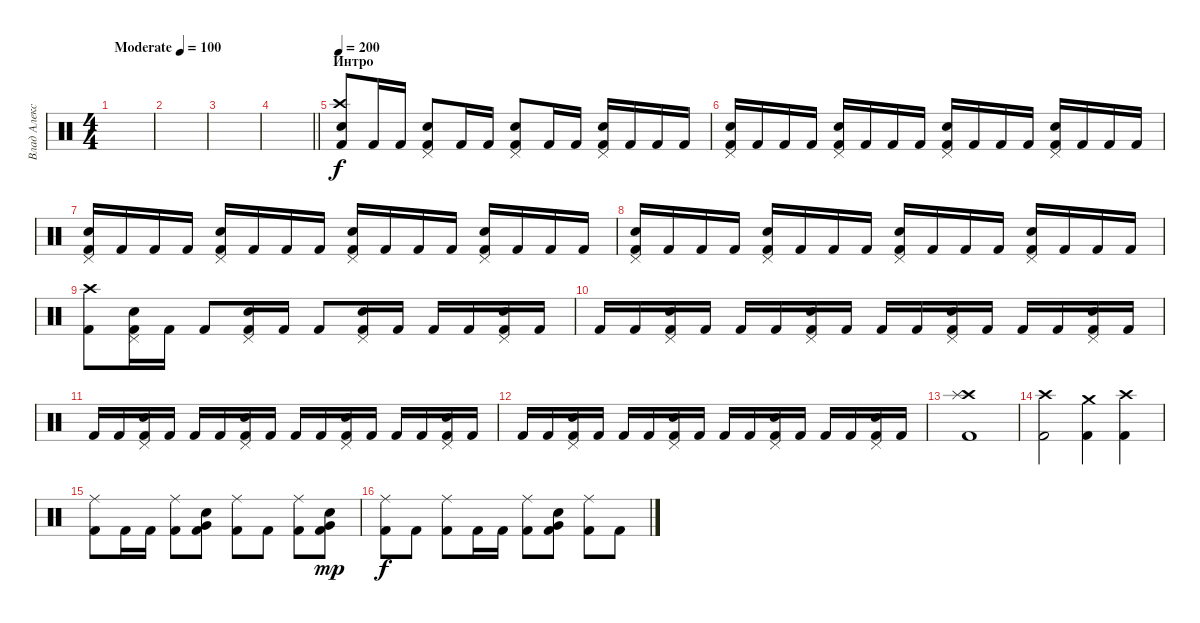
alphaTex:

\track ("Влад Алексеенко" "Влад Алекс") {instrument percussion}
\staff {score}
\articulation defaults
\ts (4 4)
\tempo (100 "Moderate")
\clef neutral
\ks c
|
|
|
\barLineRight lightlight
|
\section ("" "Интро")
\tempo 200
("Kick (hit) 2" "Crash high (hit)" "Electric Snare (hit)").8 "Kick (hit) 2".16 "Kick (hit) 2".16 ("Kick (hit) 2" "Electric Snare (hit)" "Pedal Hi-Hat (hit)").8 "Kick (hit) 2".16 "Kick (hit) 2".16 ("Kick (hit) 2" "Electric Snare (hit)" "Pedal Hi-Hat (hit)").8 "Kick (hit) 2".16 "Kick (hit) 2".16 ("Kick (hit) 2" "Electric Snare (hit)" "Pedal Hi-Hat (hit)").16 "Kick (hit) 2".16 "Kick (hit) 2".16 "Kick (hit) 2".16 |
("Kick (hit) 2" "Electric Snare (hit)" "Pedal Hi-Hat (hit)").16 "Kick (hit) 2".16 "Kick (hit) 2".16 "Kick (hit) 2".16 ("Kick (hit) 2" "Electric Snare (hit)" "Pedal Hi-Hat (hit)").16 "Kick (hit) 2".16 "Kick (hit) 2".16 "Kick (hit) 2".16 ("Kick (hit) 2" "Electric Snare (hit)" "Pedal Hi-Hat (hit)").16 "Kick (hit) 2".16 "Kick (hit) 2".16 "Kick (hit) 2".16 ("Kick (hit) 2" "Electric Snare (hit)" "Pedal Hi-Hat (hit)").16 "Kick (hit) 2".16 "Kick (hit) 2".16 "Kick (hit) 2".16 |
("Kick (hit) 2" "Electric Snare (hit)" "Pedal Hi-Hat (hit)").16 "Kick (hit) 2".16 "Kick (hit) 2".16 "Kick (hit) 2".16 ("Kick (hit) 2" "Electric Snare (hit)" "Pedal Hi-Hat (hit)").16 "Kick (hit) 2".16 "Kick (hit) 2".16 "Kick (hit) 2".16 ("Kick (hit) 2" "Electric Snare (hit)" "Pedal Hi-Hat (hit)").16 "Kick (hit) 2".16 "Kick (hit) 2".16 "Kick (hit) 2".16 ("Kick (hit) 2" "Electric Snare (hit)" "Pedal Hi-Hat (hit)").16 "Kick (hit) 2".16 "Kick (hit) 2".16 "Kick (hit) 2".16 |
("Kick (hit) 2" "Electric Snare (hit)" "Pedal Hi-Hat (hit)").16 "Kick (hit) 2".16 "Kick (hit) 2".16 "Kick (hit) 2".16 ("Kick (hit) 2" "Electric Snare (hit)" "Pedal Hi-Hat (hit)").16 "Kick (hit) 2".16 "Kick (hit) 2".16 "Kick (hit) 2".16 ("Kick (hit) 2" "Electric Snare (hit)" "Pedal Hi-Hat (hit)").16 "Kick (hit) 2".16 "Kick (hit) 2".16 "Kick (hit) 2".16 ("Kick (hit) 2" "Electric Snare (hit)" "Pedal Hi-Hat (hit)").16 "Kick (hit) 2".16 "Kick (hit) 2".16 "Kick (hit) 2".16 |
("Kick (hit) 2" "Crash high (hit)").8 ("Kick (hit) 2" "Electric Snare (hit)" "Pedal Hi-Hat (hit)").16 "Kick (hit) 2".16 "Kick (hit) 2".8 ("Kick (hit) 2" "Electric Snare (hit)" "Pedal Hi-Hat (hit)").16 "Kick (hit) 2".16 "Kick (hit) 2".8 ("Kick (hit) 2" "Electric Snare (hit)" "Pedal Hi-Hat (hit)").16 "Kick (hit) 2".16 "Kick (hit) 2".16 "Kick (hit) 2".16 ("Kick (hit) 2" "Electric Snare (hit)" "Pedal Hi-Hat (hit)").16 "Kick (hit) 2".16 |
"Kick (hit) 2".16 "Kick (hit) 2".16 ("Kick (hit) 2" "Electric Snare (hit)" "Pedal Hi-Hat (hit)").16 "Kick (hit) 2".16 "Kick (hit) 2".16 "Kick (hit) 2".16 ("Kick (hit) 2" "Electric Snare (hit)" "Pedal Hi-Hat (hit)").16 "Kick (hit) 2".16 "Kick (hit) 2".16 "Kick (hit) 2".16 ("Kick (hit) 2" "Electric Snare (hit)" "Pedal Hi-Hat (hit)").16 "Kick (hit) 2".16 "Kick (hit) 2".16 "Kick (hit) 2".16 ("Kick (hit) 2" "Electric Snare (hit)" "Pedal Hi-Hat (hit)").16 "Kick (hit) 2".16 |
"Kick (hit) 2".16 "Kick (hit) 2".16 ("Kick (hit) 2" "Electric Snare (hit)" "Pedal Hi-Hat (hit)").16 "Kick (hit) 2".16 "Kick (hit) 2".16 "Kick (hit) 2".16 ("Kick (hit) 2" "Electric Snare (hit)" "Pedal Hi-Hat (hit)").16 "Kick (hit) 2".16 "Kick (hit) 2".16 "Kick (hit) 2".16 ("Kick (hit) 2" "Electric Snare (hit)" "Pedal Hi-Hat (hit)").16 "Kick (hit) 2".16 "Kick (hit) 2".16 "Kick (hit) 2".16 ("Kick (hit) 2" "Electric Snare (hit)" "Pedal Hi-Hat (hit)").16 "Kick (hit) 2".16 |
"Kick (hit) 2".16 "Kick (hit) 2".16 ("Kick (hit) 2" "Electric Snare (hit)" "Pedal Hi-Hat (hit)").16 "Kick (hit) 2".16 "Kick (hit) 2".16 "Kick (hit) 2".16 ("Kick (hit) 2" "Electric Snare (hit)" "Pedal Hi-Hat (hit)").16 "Kick (hit) 2".16 "Kick (hit) 2".16 "Kick (hit) 2".16 ("Kick (hit) 2" "Electric Snare (hit)" "Pedal Hi-Hat (hit)").16 "Kick (hit) 2".16 "Kick (hit) 2".16 "Kick (hit) 2".16 ("Kick (hit) 2" "Electric Snare (hit)" "Pedal Hi-Hat (hit)").16 "Kick (hit) 2".16 |
("Crash high (hit)" "Splash (hit)" "Kick (hit) 2").1 |
("Crash high (hit)" "Kick (hit) 2").2 ("Crash medium (hit)" "Kick (hit) 2").4 ("Crash high (hit)" "Kick (hit) 2").4 |
("Kick (hit) 2" "Ride (middle)").8 "Kick (hit) 2".16 "Kick (hit) 2".16 ("Kick (hit) 2" "Ride (middle)").8 ("Very Low Tom (hit)" "Electric Snare (hit)" "Kick (hit) 2").8 ("Kick (hit) 2" "Ride (middle)").8 "Kick (hit) 2".8 ("Kick (hit) 2" "Ride (middle)").8 ("Electric Snare (hit)" "Very Low Tom (hit)" "Kick (hit) 2").8{dy mp} |
("Kick (hit) 2" "Ride (middle)").8{dy f} "Kick (hit) 2".8 ("Kick (hit) 2" "Ride (middle)").8 "Kick (hit) 2".16 "Kick (hit) 2".16 ("Kick (hit) 2" "Ride (middle)").8 ("Kick (hit) 2" "Electric Snare (hit)" "Very Low Tom (hit)").8 ("Kick (hit) 2" "Ride (middle)").8 "Kick (hit) 2".8
